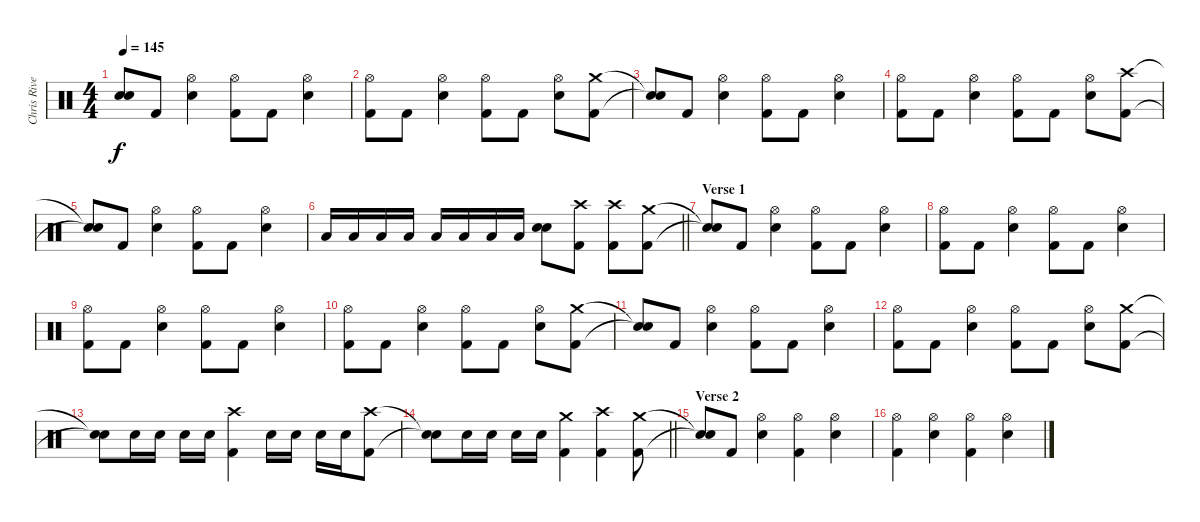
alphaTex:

\track ("Chris Rivers" "Chris Rive") {instrument percussion}
\staff {score}
\articulation defaults
\ts (4 4)
\tempo 145
\clef neutral
\ks c
("Snare (hit)"{t} "Snare (hit)"{t}).8{dy f} "Kick (hit) 2".8 ("Hi-Hat (open)" "Electric Snare (hit)").4 ("Hi-Hat (open)" "Kick (hit) 2").8 "Kick (hit) 2".8 ("Hi-Hat (open)" "Electric Snare (hit)").4 |
("Hi-Hat (open)" "Kick (hit) 2").8 "Kick (hit) 2".8 ("Hi-Hat (open)" "Electric Snare (hit)").4 ("Hi-Hat (open)" "Kick (hit) 2").8 "Kick (hit) 2".8 ("Hi-Hat (open)" "Electric Snare (hit)").8 ("Crash medium (hit)" "Kick (hit) 2").8 |
("Snare (hit)"{t} "Snare (hit)"{t}).8 "Kick (hit) 2".8 ("Hi-Hat (open)" "Electric Snare (hit)").4 ("Hi-Hat (open)" "Kick (hit) 2").8 "Kick (hit) 2".8 ("Hi-Hat (open)" "Electric Snare (hit)").4 |
("Hi-Hat (open)" "Kick (hit) 2").8 "Kick (hit) 2".8 ("Hi-Hat (open)" "Electric Snare (hit)").4 ("Hi-Hat (open)" "Kick (hit) 2").8 "Kick (hit) 2".8 ("Hi-Hat (open)" "Electric Snare (hit)").8 ("Crash high (hit)" "Kick (hit) 2").8 |
("Snare (hit)"{t} "Snare (hit)"{t}).8 "Kick (hit) 2".8 ("Hi-Hat (open)" "Electric Snare (hit)").4 ("Hi-Hat (open)" "Kick (hit) 2").8 "Kick (hit) 2".8 ("Hi-Hat (open)" "Electric Snare (hit)").4 |
\barLineRight lightlight "Low Tom (hit)".16 "Low Tom (hit)".16 "Low Floor Tom (hit)".16 "Low Floor Tom (hit)".16 "Low Tom (hit)".16 "Low Floor Tom (hit)".16 "Low Floor Tom (hit)".16 "Low Floor Tom (hit)".16
("Electric Snare (hit)" "Electric Snare (hit)").8 ("Crash high (hit)" "Kick (hit) 2").8 ("Crash high (hit)" "Kick (hit) 2").8 ("Crash medium (hit)" "Kick (hit) 2").8 |
\section ("" "Verse 1")
("Snare (hit)"{t} "Snare (hit)"{t}).8 "Kick (hit) 2".8 ("Hi-Hat (open)" "Electric Snare (hit)").4 ("Hi-Hat (open)" "Kick (hit) 2").8 "Kick (hit) 2".8 ("Hi-Hat (open)" "Electric Snare (hit)").4 |
("Hi-Hat (open)" "Kick (hit) 2").8 "Kick (hit) 2".8 ("Hi-Hat (open)" "Electric Snare (hit)").4 ("Hi-Hat (open)" "Kick (hit) 2").8 "Kick (hit) 2".8 ("Hi-Hat (open)" "Electric Snare (hit)").4 |
("Hi-Hat (open)" "Kick (hit) 2").8 "Kick (hit) 2".8 ("Hi-Hat (open)" "Electric Snare (hit)").4 ("Hi-Hat (open)" "Kick (hit) 2").8 "Kick (hit) 2".8 ("Hi-Hat (open)" "Electric Snare (hit)").4 |
("Hi-Hat (open)" "Kick (hit) 2").8 "Kick (hit) 2".8 ("Hi-Hat (open)" "Electric Snare (hit)").4 ("Hi-Hat (open)" "Kick (hit) 2").8 "Kick (hit) 2".8 ("Hi-Hat (open)" "Electric Snare (hit)").8 ("Crash medium (hit)" "Kick (hit) 2").8 |
("Snare (hit)"{t} "Snare (hit)"{t}).8 "Kick (hit) 2".8 ("Hi-Hat (open)" "Electric Snare (hit)").4 ("Hi-Hat (open)" "Kick (hit) 2").8 "Kick (hit) 2".8 ("Hi-Hat (open)" "Electric Snare (hit)").4 |
("Hi-Hat (open)" "Kick (hit) 2").8 "Kick (hit) 2".8 ("Hi-Hat (open)" "Electric Snare (hit)").4 ("Hi-Hat (open)" "Kick (hit) 2").8 "Kick (hit) 2".8 ("Hi-Hat (open)" "Electric Snare (hit)").8 ("Crash medium (hit)" "Kick (hit) 2").8 |
("Snare (hit)"{t} "Snare (hit)"{t}).8 "Electric Snare (hit)".16 "Electric Snare (hit)".16 "Electric Snare (hit)".16 "Electric Snare (hit)".16 ("Crash high (hit)" "Kick (hit) 2").4 "Electric Snare (hit)".16 "Electric Snare (hit)".16 "Electric Snare (hit)".16 "Electric Snare (hit)".16 ("Crash high (hit)" "Kick (hit) 2").8 |
\barLineRight lightlight
("Snare (hit)"{t} "Snare (hit)"{t}).8 "Electric Snare (hit)".16 "Electric Snare (hit)".16 "Electric Snare (hit)".16 "Electric Snare (hit)".16 ("Crash medium (hit)" "Kick (hit) 2").4 ("Crash high (hit)" "Kick (hit) 2").4 ("Crash medium (hit)" "Kick (hit) 2").8 |
\section ("" "Verse 2")
("Snare (hit)"{t} "Snare (hit)"{t}).8 "Kick (hit) 2".8 ("Hi-Hat (open)" "Electric Snare (hit)").4 ("Hi-Hat (open)" "Kick (hit) 2").4 ("Hi-Hat (open)" "Electric Snare (hit)").4 |
("Hi-Hat (open)" "Kick (hit) 2").4 ("Hi-Hat (open)" "Electric Snare (hit)").4 ("Hi-Hat (open)" "Kick (hit) 2").4 ("Hi-Hat (open)" "Electric Snare (hit)").4
